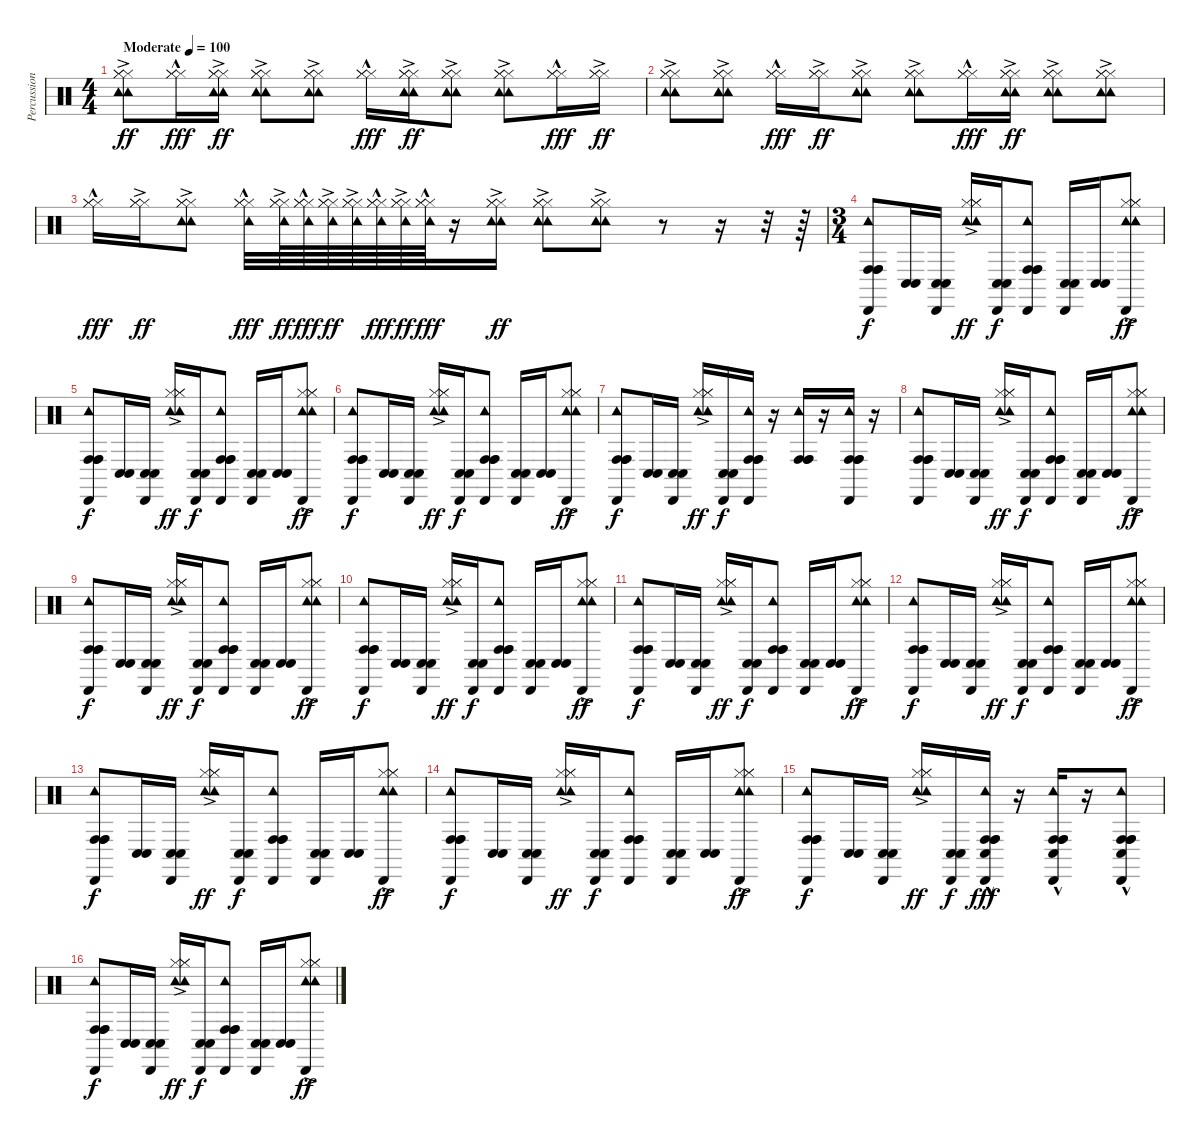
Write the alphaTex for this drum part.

\track ("Percussion" "Percussion") {instrument percussion}
\staff {score}
\articulation defaults
\ts (4 4)
\tempo (100 "Moderate")
\clef neutral
\ks c
("Tambourine (hit)" "Tambourine (hit)" "Hi-Hat (closed)" "Hi-Hat (closed)" "Hi-Hat (closed)"{ac}).8{dy ff} ("Hi-Hat (closed)" "Hi-Hat (closed)" "Hi-Hat (closed)"{hac}).16{dy fff} ("Tambourine (hit)" "Tambourine (hit)" "Hi-Hat (closed)" "Hi-Hat (closed)" "Hi-Hat (closed)"{ac}).16{dy ff} ("Tambourine (hit)" "Tambourine (hit)" "Hi-Hat (closed)" "Hi-Hat (closed)" "Hi-Hat (closed)"{ac}).8 ("Tambourine (hit)" "Tambourine (hit)" "Hi-Hat (closed)" "Hi-Hat (closed)" "Hi-Hat (closed)"{ac}).8 ("Hi-Hat (closed)" "Hi-Hat (closed)" "Hi-Hat (closed)"{hac}).16{dy fff} ("Tambourine (hit)" "Tambourine (hit)" "Hi-Hat (closed)" "Hi-Hat (closed)" "Hi-Hat (closed)"{ac}).16{dy ff} ("Tambourine (hit)" "Tambourine (hit)" "Hi-Hat (closed)" "Hi-Hat (closed)" "Hi-Hat (closed)"{ac}).8 ("Tambourine (hit)" "Tambourine (hit)" "Hi-Hat (closed)" "Hi-Hat (closed)" "Hi-Hat (closed)"{ac}).8 ("Hi-Hat (closed)" "Hi-Hat (closed)" "Hi-Hat (closed)"{hac}).16{dy fff} ("Hi-Hat (closed)" "Hi-Hat (closed)" "Hi-Hat (closed)"{ac}).16{dy ff} |
("Tambourine (hit)" "Tambourine (hit)" "Hi-Hat (closed)" "Hi-Hat (closed)" "Hi-Hat (closed)"{ac}).8 ("Tambourine (hit)" "Tambourine (hit)" "Hi-Hat (closed)" "Hi-Hat (closed)" "Hi-Hat (closed)"{ac}).8 ("Hi-Hat (closed)" "Hi-Hat (closed)" "Hi-Hat (closed)"{hac}).16{dy fff} ("Hi-Hat (closed)" "Hi-Hat (closed)" "Hi-Hat (closed)"{ac}).16{dy ff} ("Tambourine (hit)" "Tambourine (hit)" "Hi-Hat (closed)" "Hi-Hat (closed)" "Hi-Hat (closed)"{ac}).8 ("Tambourine (hit)" "Tambourine (hit)" "Hi-Hat (closed)" "Hi-Hat (closed)" "Hi-Hat (closed)"{ac}).8 ("Hi-Hat (closed)" "Hi-Hat (closed)" "Hi-Hat (closed)"{hac}).16{dy fff} ("Tambourine (hit)" "Tambourine (hit)" "Hi-Hat (closed)" "Hi-Hat (closed)" "Hi-Hat (closed)"{ac}).16{dy ff} ("Tambourine (hit)" "Tambourine (hit)" "Hi-Hat (closed)" "Hi-Hat (closed)" "Hi-Hat (closed)"{ac}).8 ("Tambourine (hit)" "Tambourine (hit)" "Hi-Hat (closed)" "Hi-Hat (closed)" "Hi-Hat (closed)"{ac}).8 |
("Hi-Hat (closed)" "Hi-Hat (closed)" "Hi-Hat (closed)"{hac}).16{dy fff} ("Hi-Hat (closed)" "Hi-Hat (closed)" "Hi-Hat (closed)"{ac}).16{dy ff} ("Tambourine (hit)" "Tambourine (hit)" "Hi-Hat (closed)" "Hi-Hat (closed)" "Hi-Hat (closed)"{ac}).8 ("Tambourine (hit)" "Hi-Hat (closed)" "Hi-Hat (closed)" "Hi-Hat (closed)"{hac}).32{dy fff} ("Tambourine (hit)" "Hi-Hat (closed)" "Hi-Hat (closed)" "Hi-Hat (closed)"{ac}).64{dy ff} ("Tambourine (hit)" "Hi-Hat (closed)" "Hi-Hat (closed)" "Hi-Hat (closed)"{hac}).64{dy fff} ("Tambourine (hit)" "Hi-Hat (closed)" "Hi-Hat (closed)" "Hi-Hat (closed)"{ac}).64{dy ff} ("Tambourine (hit)" "Hi-Hat (closed)" "Hi-Hat (closed)" "Hi-Hat (closed)"{ac}).64 ("Tambourine (hit)" "Hi-Hat (closed)" "Hi-Hat (closed)" "Hi-Hat (closed)"{hac}).64{dy fff} ("Tambourine (hit)" "Hi-Hat (closed)" "Hi-Hat (closed)" "Hi-Hat (closed)"{ac}).64{dy ff} ("Tambourine (hit)" "Hi-Hat (closed)" "Hi-Hat (closed)" "Hi-Hat (closed)"{hac}).64{dy fff} r.16 ("Tambourine (hit)" "Tambourine (hit)" "Hi-Hat (closed)" "Hi-Hat (closed)" "Hi-Hat (closed)"{ac}).16{dy ff} ("Tambourine (hit)" "Tambourine (hit)" "Hi-Hat (closed)" "Hi-Hat (closed)" "Hi-Hat (closed)"{ac}).8 ("Tambourine (hit)" "Tambourine (hit)" "Hi-Hat (closed)" "Hi-Hat (closed)" "Hi-Hat (closed)"{ac}).8 r.8 r.16 r.32 r.64 |
\ts (3 4)
("Tambourine (hit)" "Conga high (hit)" "Conga high (hit)" "Conga high (hit)" "Cabasa (hit)").8{dy f} ("Conga low (hit)" "Conga low (hit)").16 ("Conga low (hit)" "Conga low (hit)" "Cabasa (hit)").16 ("Tambourine (hit)" "Tambourine (hit)" "Hi-Hat (closed)" "Hi-Hat (closed)" "Hi-Hat (closed)"{ac}).16{dy ff} ("Conga low (hit)" "Conga low (hit)" "Cabasa (hit)").16{dy f} ("Tambourine (hit)" "Conga high (hit)" "Conga high (hit)" "Conga high (hit)" "Cabasa (hit)").8 ("Conga low (hit)" "Conga low (hit)" "Cabasa (hit)").16 ("Conga low (hit)" "Conga low (hit)").16 ("Tambourine (hit)" "Tambourine (hit)" "Hi-Hat (closed)" "Hi-Hat (closed)" "Hi-Hat (closed)"{ac} "Cabasa (hit)").8{dy ff} |
("Tambourine (hit)" "Conga high (hit)" "Conga high (hit)" "Conga high (hit)" "Cabasa (hit)").8{dy f} ("Conga low (hit)" "Conga low (hit)").16 ("Conga low (hit)" "Conga low (hit)" "Cabasa (hit)").16 ("Tambourine (hit)" "Tambourine (hit)" "Hi-Hat (closed)" "Hi-Hat (closed)" "Hi-Hat (closed)"{ac}).16{dy ff} ("Conga low (hit)" "Conga low (hit)" "Cabasa (hit)").16{dy f} ("Tambourine (hit)" "Conga high (hit)" "Conga high (hit)" "Conga high (hit)" "Cabasa (hit)").8 ("Conga low (hit)" "Conga low (hit)" "Cabasa (hit)").16 ("Conga low (hit)" "Conga low (hit)").16 ("Tambourine (hit)" "Tambourine (hit)" "Hi-Hat (closed)" "Hi-Hat (closed)" "Hi-Hat (closed)"{ac} "Cabasa (hit)").8{dy ff} |
("Tambourine (hit)" "Conga high (hit)" "Conga high (hit)" "Conga high (hit)" "Cabasa (hit)").8{dy f} ("Conga low (hit)" "Conga low (hit)").16 ("Conga low (hit)" "Conga low (hit)" "Cabasa (hit)").16 ("Tambourine (hit)" "Tambourine (hit)" "Hi-Hat (closed)" "Hi-Hat (closed)" "Hi-Hat (closed)"{ac}).16{dy ff} ("Conga low (hit)" "Conga low (hit)" "Cabasa (hit)").16{dy f} ("Tambourine (hit)" "Conga high (hit)" "Conga high (hit)" "Conga high (hit)" "Cabasa (hit)").8 ("Conga low (hit)" "Conga low (hit)" "Cabasa (hit)").16 ("Conga low (hit)" "Conga low (hit)").16 ("Tambourine (hit)" "Tambourine (hit)" "Hi-Hat (closed)" "Hi-Hat (closed)" "Hi-Hat (closed)"{ac} "Cabasa (hit)").8{dy ff} |
("Tambourine (hit)" "Conga high (hit)" "Conga high (hit)" "Conga high (hit)" "Cabasa (hit)").8{dy f} ("Conga low (hit)" "Conga low (hit)").16 ("Conga low (hit)" "Conga low (hit)" "Cabasa (hit)").16 ("Tambourine (hit)" "Tambourine (hit)" "Hi-Hat (closed)" "Hi-Hat (closed)" "Hi-Hat (closed)"{ac}).16{dy ff} ("Conga low (hit)" "Conga low (hit)" "Cabasa (hit)").16{dy f} ("Tambourine (hit)" "Conga high (hit)" "Conga high (hit)" "Conga high (hit)" "Cabasa (hit)").16 r.16 ("Tambourine (hit)" "Conga high (hit)" "Conga high (hit)" "Conga high (hit)").16 r.16 ("Tambourine (hit)" "Conga high (hit)" "Conga high (hit)" "Conga high (hit)" "Cabasa (hit)").16 r.16 |
("Tambourine (hit)" "Conga high (hit)" "Conga high (hit)" "Conga high (hit)" "Cabasa (hit)").8 ("Conga low (hit)" "Conga low (hit)").16 ("Conga low (hit)" "Conga low (hit)" "Cabasa (hit)").16 ("Tambourine (hit)" "Tambourine (hit)" "Hi-Hat (closed)" "Hi-Hat (closed)" "Hi-Hat (closed)"{ac}).16{dy ff} ("Conga low (hit)" "Conga low (hit)" "Cabasa (hit)").16{dy f} ("Tambourine (hit)" "Conga high (hit)" "Conga high (hit)" "Conga high (hit)" "Cabasa (hit)").8 ("Conga low (hit)" "Conga low (hit)" "Cabasa (hit)").16 ("Conga low (hit)" "Conga low (hit)").16 ("Tambourine (hit)" "Tambourine (hit)" "Hi-Hat (closed)" "Hi-Hat (closed)" "Hi-Hat (closed)"{ac} "Cabasa (hit)").8{dy ff} |
("Tambourine (hit)" "Conga high (hit)" "Conga high (hit)" "Conga high (hit)" "Cabasa (hit)").8{dy f} ("Conga low (hit)" "Conga low (hit)").16 ("Conga low (hit)" "Conga low (hit)" "Cabasa (hit)").16 ("Tambourine (hit)" "Tambourine (hit)" "Hi-Hat (closed)" "Hi-Hat (closed)" "Hi-Hat (closed)"{ac}).16{dy ff} ("Conga low (hit)" "Conga low (hit)" "Cabasa (hit)").16{dy f} ("Tambourine (hit)" "Conga high (hit)" "Conga high (hit)" "Conga high (hit)" "Cabasa (hit)").8 ("Conga low (hit)" "Conga low (hit)" "Cabasa (hit)").16 ("Conga low (hit)" "Conga low (hit)").16 ("Tambourine (hit)" "Tambourine (hit)" "Hi-Hat (closed)" "Hi-Hat (closed)" "Hi-Hat (closed)"{ac} "Cabasa (hit)").8{dy ff} |
("Tambourine (hit)" "Conga high (hit)" "Conga high (hit)" "Conga high (hit)" "Cabasa (hit)").8{dy f} ("Conga low (hit)" "Conga low (hit)").16 ("Conga low (hit)" "Conga low (hit)" "Cabasa (hit)").16 ("Tambourine (hit)" "Tambourine (hit)" "Hi-Hat (closed)" "Hi-Hat (closed)" "Hi-Hat (closed)"{ac}).16{dy ff} ("Conga low (hit)" "Conga low (hit)" "Cabasa (hit)").16{dy f} ("Tambourine (hit)" "Conga high (hit)" "Conga high (hit)" "Conga high (hit)" "Cabasa (hit)").8 ("Conga low (hit)" "Conga low (hit)" "Cabasa (hit)").16 ("Conga low (hit)" "Conga low (hit)").16 ("Tambourine (hit)" "Tambourine (hit)" "Hi-Hat (closed)" "Hi-Hat (closed)" "Hi-Hat (closed)"{ac} "Cabasa (hit)").8{dy ff} |
("Tambourine (hit)" "Conga high (hit)" "Conga high (hit)" "Conga high (hit)" "Cabasa (hit)").8{dy f} ("Conga low (hit)" "Conga low (hit)").16 ("Conga low (hit)" "Conga low (hit)" "Cabasa (hit)").16 ("Tambourine (hit)" "Tambourine (hit)" "Hi-Hat (closed)" "Hi-Hat (closed)" "Hi-Hat (closed)"{ac}).16{dy ff} ("Conga low (hit)" "Conga low (hit)" "Cabasa (hit)").16{dy f} ("Tambourine (hit)" "Conga high (hit)" "Conga high (hit)" "Conga high (hit)" "Cabasa (hit)").8 ("Conga low (hit)" "Conga low (hit)" "Cabasa (hit)").16 ("Conga low (hit)" "Conga low (hit)").16 ("Tambourine (hit)" "Tambourine (hit)" "Hi-Hat (closed)" "Hi-Hat (closed)" "Hi-Hat (closed)"{ac} "Cabasa (hit)").8{dy ff} |
("Tambourine (hit)" "Conga high (hit)" "Conga high (hit)" "Conga high (hit)" "Cabasa (hit)").8{dy f} ("Conga low (hit)" "Conga low (hit)").16 ("Conga low (hit)" "Conga low (hit)" "Cabasa (hit)").16 ("Tambourine (hit)" "Tambourine (hit)" "Hi-Hat (closed)" "Hi-Hat (closed)" "Hi-Hat (closed)"{ac}).16{dy ff} ("Conga low (hit)" "Conga low (hit)" "Cabasa (hit)").16{dy f} ("Tambourine (hit)" "Conga high (hit)" "Conga high (hit)" "Conga high (hit)" "Cabasa (hit)").8 ("Conga low (hit)" "Conga low (hit)" "Cabasa (hit)").16 ("Conga low (hit)" "Conga low (hit)").16 ("Tambourine (hit)" "Tambourine (hit)" "Hi-Hat (closed)" "Hi-Hat (closed)" "Hi-Hat (closed)"{ac} "Cabasa (hit)").8{dy ff} |
("Tambourine (hit)" "Conga high (hit)" "Conga high (hit)" "Conga high (hit)" "Cabasa (hit)").8{dy f} ("Conga low (hit)" "Conga low (hit)").16 ("Conga low (hit)" "Conga low (hit)" "Cabasa (hit)").16 ("Tambourine (hit)" "Tambourine (hit)" "Hi-Hat (closed)" "Hi-Hat (closed)" "Hi-Hat (closed)"{ac}).16{dy ff} ("Conga low (hit)" "Conga low (hit)" "Cabasa (hit)").16{dy f} ("Tambourine (hit)" "Conga high (hit)" "Conga high (hit)" "Conga high (hit)" "Cabasa (hit)").8 ("Conga low (hit)" "Conga low (hit)" "Cabasa (hit)").16 ("Conga low (hit)" "Conga low (hit)").16 ("Tambourine (hit)" "Tambourine (hit)" "Hi-Hat (closed)" "Hi-Hat (closed)" "Hi-Hat (closed)"{ac} "Cabasa (hit)").8{dy ff} |
("Tambourine (hit)" "Conga high (hit)" "Conga high (hit)" "Conga high (hit)" "Cabasa (hit)").8{dy f} ("Conga low (hit)" "Conga low (hit)").16 ("Conga low (hit)" "Conga low (hit)" "Cabasa (hit)").16 ("Tambourine (hit)" "Tambourine (hit)" "Hi-Hat (closed)" "Hi-Hat (closed)" "Hi-Hat (closed)"{ac}).16{dy ff} ("Conga low (hit)" "Conga low (hit)" "Cabasa (hit)").16{dy f} ("Tambourine (hit)" "Conga high (hit)" "Conga high (hit)" "Conga high (hit)" "Cabasa (hit)").8 ("Conga low (hit)" "Conga low (hit)" "Cabasa (hit)").16 ("Conga low (hit)" "Conga low (hit)").16 ("Tambourine (hit)" "Tambourine (hit)" "Hi-Hat (closed)" "Hi-Hat (closed)" "Hi-Hat (closed)"{ac} "Cabasa (hit)").8{dy ff} |
("Tambourine (hit)" "Conga high (hit)" "Conga high (hit)" "Conga high (hit)" "Cabasa (hit)").8{dy f} ("Conga low (hit)" "Conga low (hit)").16 ("Conga low (hit)" "Conga low (hit)" "Cabasa (hit)").16 ("Tambourine (hit)" "Tambourine (hit)" "Hi-Hat (closed)" "Hi-Hat (closed)" "Hi-Hat (closed)"{ac}).16{dy ff} ("Conga low (hit)" "Conga low (hit)" "Cabasa (hit)").16{dy f} ("Tambourine (hit)"{hac} "Conga high (hit)"{hac} "Conga high (hit)"{hac} "Conga high (hit)"{hac} "Cabasa (hit)"{hac} "Conga low (hit)"{hac}).16{dy fff} r.16 ("Tambourine (hit)"{hac} "Conga high (hit)"{hac} "Conga high (hit)"{hac} "Conga high (hit)"{hac} "Conga low (hit)"{hac} "Cabasa (hit)"{hac}).16 r.16 ("Tambourine (hit)"{hac} "Conga high (hit)"{hac} "Conga high (hit)"{hac} "Conga high (hit)"{hac} "Conga low (hit)"{hac} "Cabasa (hit)"{hac}).8 |
("Tambourine (hit)" "Conga high (hit)" "Conga high (hit)" "Conga high (hit)" "Cabasa (hit)").8{dy f} ("Conga low (hit)" "Conga low (hit)").16 ("Conga low (hit)" "Conga low (hit)" "Cabasa (hit)").16 ("Tambourine (hit)" "Tambourine (hit)" "Hi-Hat (closed)" "Hi-Hat (closed)" "Hi-Hat (closed)"{ac}).16{dy ff} ("Conga low (hit)" "Conga low (hit)" "Cabasa (hit)").16{dy f} ("Tambourine (hit)" "Conga high (hit)" "Conga high (hit)" "Conga high (hit)" "Cabasa (hit)").8 ("Conga low (hit)" "Conga low (hit)" "Cabasa (hit)").16 ("Conga low (hit)" "Conga low (hit)").16 ("Tambourine (hit)" "Tambourine (hit)" "Hi-Hat (closed)" "Hi-Hat (closed)" "Hi-Hat (closed)"{ac} "Cabasa (hit)").8{dy ff}
